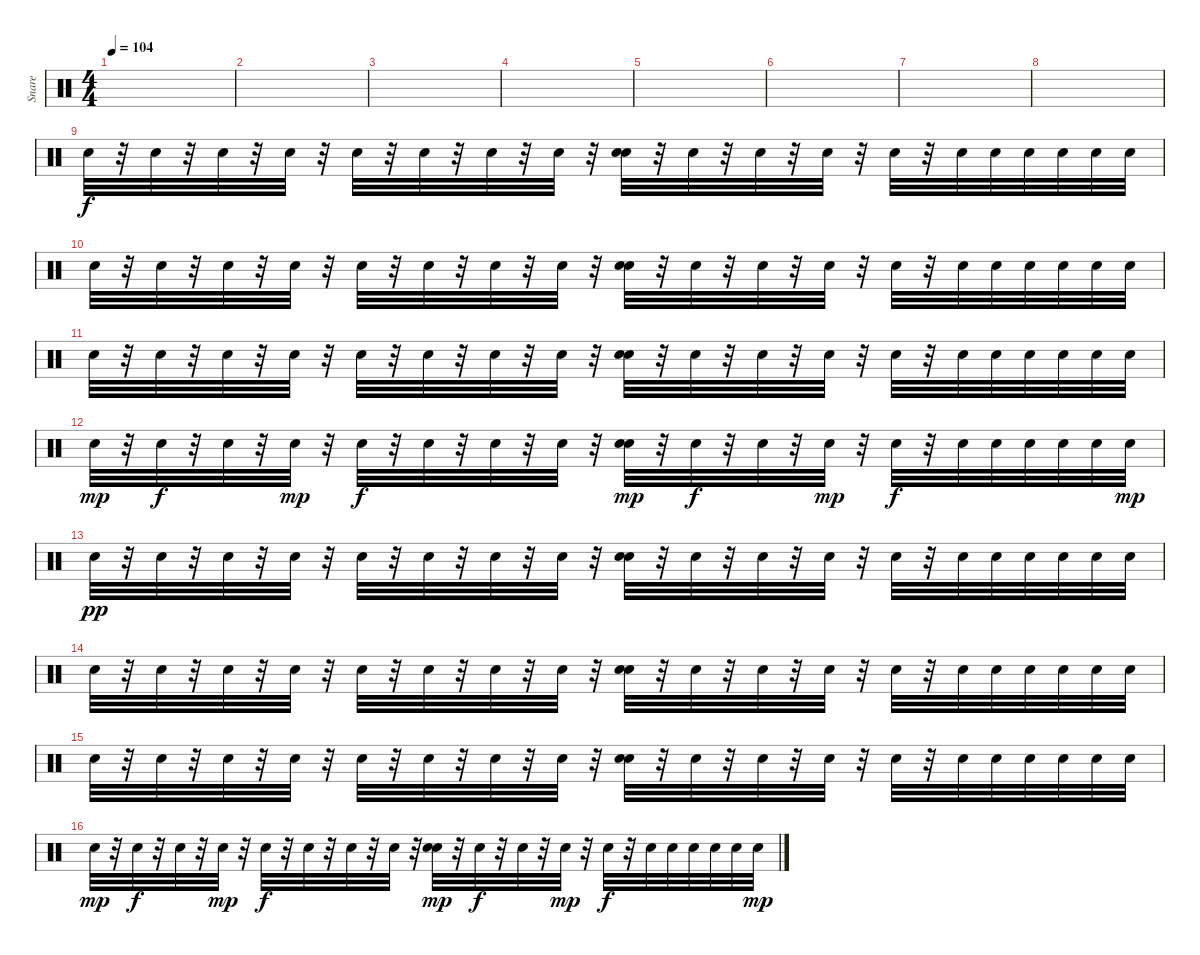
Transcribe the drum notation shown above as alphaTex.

\track ("Snare" "Snare") {instrument percussion}
\staff {score}
\articulation defaults
\ts (4 4)
\tempo 104
\clef neutral
\ks c
|
|
|
|
|
|
|
|
"Snare (hit) 2".32 r.32 "Snare (hit) 2".32 r.32 "Snare (hit) 2".32 r.32 "Snare (hit) 2".32 r.32 "Snare (hit) 2".32 r.32 "Snare (hit) 2".32 r.32 "Snare (hit) 2".32 r.32 "Snare (hit) 2".32 r.32 ("Snare (hit) 2" "Snare (hit) 2").32 r.32 "Snare (hit) 2".32 r.32 "Snare (hit) 2".32 r.32 "Snare (hit) 2".32 r.32 "Snare (hit) 2".32 r.32 "Snare (hit) 2".32 "Snare (hit) 2".32 "Snare (hit) 2".32 "Snare (hit) 2".32 "Snare (hit) 2".32 "Snare (hit) 2".32 |
"Snare (hit) 2".32 r.32 "Snare (hit) 2".32 r.32 "Snare (hit) 2".32 r.32 "Snare (hit) 2".32 r.32 "Snare (hit) 2".32 r.32 "Snare (hit) 2".32 r.32 "Snare (hit) 2".32 r.32 "Snare (hit) 2".32 r.32 ("Snare (hit) 2" "Snare (hit) 2").32 r.32 "Snare (hit) 2".32 r.32 "Snare (hit) 2".32 r.32 "Snare (hit) 2".32 r.32 "Snare (hit) 2".32 r.32 "Snare (hit) 2".32 "Snare (hit) 2".32 "Snare (hit) 2".32 "Snare (hit) 2".32 "Snare (hit) 2".32 "Snare (hit) 2".32 |
"Snare (hit) 2".32 r.32 "Snare (hit) 2".32 r.32 "Snare (hit) 2".32 r.32 "Snare (hit) 2".32 r.32 "Snare (hit) 2".32 r.32 "Snare (hit) 2".32 r.32 "Snare (hit) 2".32 r.32 "Snare (hit) 2".32 r.32 ("Snare (hit) 2" "Snare (hit) 2").32 r.32 "Snare (hit) 2".32 r.32 "Snare (hit) 2".32 r.32 "Snare (hit) 2".32 r.32 "Snare (hit) 2".32 r.32 "Snare (hit) 2".32 "Snare (hit) 2".32 "Snare (hit) 2".32 "Snare (hit) 2".32 "Snare (hit) 2".32 "Snare (hit) 2".32 |
"Snare (hit) 2".32{dy mp} r.32 "Snare (hit) 2".32{dy f} r.32 "Snare (hit) 2".32 r.32 "Snare (hit) 2".32{dy mp} r.32 "Snare (hit) 2".32{dy f} r.32 "Snare (hit) 2".32 r.32 "Snare (hit) 2".32 r.32 "Snare (hit) 2".32 r.32 ("Snare (hit) 2" "Snare (hit) 2").32{dy mp} r.32 "Snare (hit) 2".32{dy f} r.32 "Snare (hit) 2".32 r.32 "Snare (hit) 2".32{dy mp} r.32 "Snare (hit) 2".32{dy f} r.32 "Snare (hit) 2".32 "Snare (hit) 2".32 "Snare (hit) 2".32 "Snare (hit) 2".32 "Snare (hit) 2".32 "Snare (hit) 2".32{dy mp} |
"Snare (hit) 2".32{dy pp} r.32 "Snare (hit) 2".32 r.32 "Snare (hit) 2".32 r.32 "Snare (hit) 2".32 r.32 "Snare (hit) 2".32 r.32 "Snare (hit) 2".32 r.32 "Snare (hit) 2".32 r.32 "Snare (hit) 2".32 r.32 ("Snare (hit) 2" "Snare (hit) 2").32 r.32 "Snare (hit) 2".32 r.32 "Snare (hit) 2".32 r.32 "Snare (hit) 2".32 r.32 "Snare (hit) 2".32 r.32 "Snare (hit) 2".32 "Snare (hit) 2".32 "Snare (hit) 2".32 "Snare (hit) 2".32 "Snare (hit) 2".32 "Snare (hit) 2".32 |
"Snare (hit) 2".32 r.32 "Snare (hit) 2".32 r.32 "Snare (hit) 2".32 r.32 "Snare (hit) 2".32 r.32 "Snare (hit) 2".32 r.32 "Snare (hit) 2".32 r.32 "Snare (hit) 2".32 r.32 "Snare (hit) 2".32 r.32 ("Snare (hit) 2" "Snare (hit) 2").32 r.32 "Snare (hit) 2".32 r.32 "Snare (hit) 2".32 r.32 "Snare (hit) 2".32 r.32 "Snare (hit) 2".32 r.32 "Snare (hit) 2".32 "Snare (hit) 2".32 "Snare (hit) 2".32 "Snare (hit) 2".32 "Snare (hit) 2".32 "Snare (hit) 2".32 |
"Snare (hit) 2".32 r.32 "Snare (hit) 2".32 r.32 "Snare (hit) 2".32 r.32 "Snare (hit) 2".32 r.32 "Snare (hit) 2".32 r.32 "Snare (hit) 2".32 r.32 "Snare (hit) 2".32 r.32 "Snare (hit) 2".32 r.32 ("Snare (hit) 2" "Snare (hit) 2").32 r.32 "Snare (hit) 2".32 r.32 "Snare (hit) 2".32 r.32 "Snare (hit) 2".32 r.32 "Snare (hit) 2".32 r.32 "Snare (hit) 2".32 "Snare (hit) 2".32 "Snare (hit) 2".32 "Snare (hit) 2".32 "Snare (hit) 2".32 "Snare (hit) 2".32 |
"Snare (hit) 2".32{dy mp} r.32 "Snare (hit) 2".32{dy f} r.32 "Snare (hit) 2".32 r.32 "Snare (hit) 2".32{dy mp} r.32 "Snare (hit) 2".32{dy f} r.32 "Snare (hit) 2".32 r.32 "Snare (hit) 2".32 r.32 "Snare (hit) 2".32 r.32 ("Snare (hit) 2" "Snare (hit) 2").32{dy mp} r.32 "Snare (hit) 2".32{dy f} r.32 "Snare (hit) 2".32 r.32 "Snare (hit) 2".32{dy mp} r.32 "Snare (hit) 2".32{dy f} r.32 "Snare (hit) 2".32 "Snare (hit) 2".32 "Snare (hit) 2".32 "Snare (hit) 2".32 "Snare (hit) 2".32 "Snare (hit) 2".32{dy mp}
